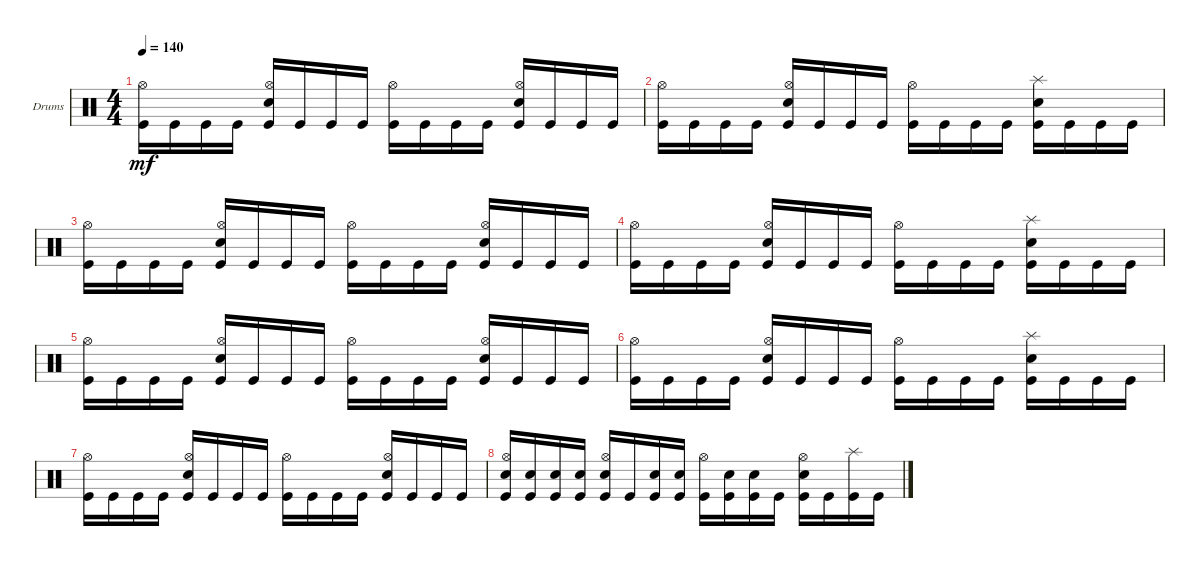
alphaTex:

\defaultSystemsLayout 4
\bracketExtendMode groupsimilarinstruments
\firstSystemTrackNameOrientation horizontal
\otherSystemsTrackNameOrientation horizontal
\track ("Drumkit" "Drums") {instrument percussion}
\staff {score}
\articulation defaults
\ts (4 4)
\tempo 140
\clef neutral
\scale
0.333333
\ks c
("Kick (hit)" "Hi-Hat (open)").16{dy mf} "Kick (hit)".16 "Kick (hit)".16 "Kick (hit)".16 ("Kick (hit)" "Snare (hit) 2" "Hi-Hat (open)").16 "Kick (hit)".16 "Kick (hit)".16 "Kick (hit)".16 ("Kick (hit)" "Hi-Hat (open)").16 "Kick (hit)".16 "Kick (hit)".16 "Kick (hit)".16 ("Kick (hit)" "Snare (hit) 2" "Hi-Hat (open)").16 "Kick (hit)".16 "Kick (hit)".16 "Kick (hit)".16 |
\scale
0.333333 ("Kick (hit)" "Hi-Hat (open)").16 "Kick (hit)".16 "Kick (hit)".16 "Kick (hit)".16 ("Kick (hit)" "Snare (hit) 2" "Hi-Hat (open)").16 "Kick (hit)".16 "Kick (hit)".16 "Kick (hit)".16 ("Kick (hit)" "Hi-Hat (open)").16 "Kick (hit)".16 "Kick (hit)".16 "Kick (hit)".16 ("Kick (hit)" "Snare (hit) 2" "Splash (hit)").16 "Kick (hit)".16 "Kick (hit)".16 "Kick (hit)".16 |
\scale
0.333333 ("Kick (hit)" "Hi-Hat (open)").16 "Kick (hit)".16 "Kick (hit)".16 "Kick (hit)".16 ("Kick (hit)" "Snare (hit) 2" "Hi-Hat (open)").16 "Kick (hit)".16 "Kick (hit)".16 "Kick (hit)".16 ("Kick (hit)" "Hi-Hat (open)").16 "Kick (hit)".16 "Kick (hit)".16 "Kick (hit)".16 ("Kick (hit)" "Snare (hit) 2" "Hi-Hat (open)").16 "Kick (hit)".16 "Kick (hit)".16 "Kick (hit)".16 |
\scale
0.333333 ("Kick (hit)" "Hi-Hat (open)").16 "Kick (hit)".16 "Kick (hit)".16 "Kick (hit)".16 ("Kick (hit)" "Snare (hit) 2" "Hi-Hat (open)").16 "Kick (hit)".16 "Kick (hit)".16 "Kick (hit)".16 ("Kick (hit)" "Hi-Hat (open)").16 "Kick (hit)".16 "Kick (hit)".16 "Kick (hit)".16 ("Kick (hit)" "Snare (hit) 2" "Splash (hit)").16 "Kick (hit)".16 "Kick (hit)".16 "Kick (hit)".16 |
\scale
0.333333 ("Kick (hit)" "Hi-Hat (open)").16 "Kick (hit)".16 "Kick (hit)".16 "Kick (hit)".16 ("Kick (hit)" "Snare (hit) 2" "Hi-Hat (open)").16 "Kick (hit)".16 "Kick (hit)".16 "Kick (hit)".16 ("Kick (hit)" "Hi-Hat (open)").16 "Kick (hit)".16 "Kick (hit)".16 "Kick (hit)".16 ("Kick (hit)" "Snare (hit) 2" "Hi-Hat (open)").16 "Kick (hit)".16 "Kick (hit)".16 "Kick (hit)".16 |
\scale
0.333333 ("Kick (hit)" "Hi-Hat (open)").16 "Kick (hit)".16 "Kick (hit)".16 "Kick (hit)".16 ("Kick (hit)" "Snare (hit) 2" "Hi-Hat (open)").16 "Kick (hit)".16 "Kick (hit)".16 "Kick (hit)".16 ("Kick (hit)" "Hi-Hat (open)").16 "Kick (hit)".16 "Kick (hit)".16 "Kick (hit)".16 ("Kick (hit)" "Snare (hit) 2" "Splash (hit)").16 "Kick (hit)".16 "Kick (hit)".16 "Kick (hit)".16 |
\scale
0.333333 ("Kick (hit)" "Hi-Hat (open)").16 "Kick (hit)".16 "Kick (hit)".16 "Kick (hit)".16 ("Kick (hit)" "Snare (hit) 2" "Hi-Hat (open)").16 "Kick (hit)".16 "Kick (hit)".16 "Kick (hit)".16 ("Kick (hit)" "Hi-Hat (open)").16 "Kick (hit)".16 "Kick (hit)".16 "Kick (hit)".16 ("Kick (hit)" "Snare (hit) 2" "Hi-Hat (open)").16 "Kick (hit)".16 "Kick (hit)".16 "Kick (hit)".16 |
\scale
0.333333 ("Kick (hit)" "Hi-Hat (open)" "Snare (hit) 2").16 ("Kick (hit)" "Snare (hit) 2").16 ("Kick (hit)" "Snare (hit) 2").16 ("Kick (hit)" "Snare (hit) 2").16 ("Kick (hit)" "Snare (hit) 2" "Hi-Hat (open)").16 "Kick (hit)".16 ("Kick (hit)" "Snare (hit) 2").16 ("Kick (hit)" "Snare (hit) 2").16 ("Kick (hit)" "Hi-Hat (open)").16 ("Kick (hit)" "Snare (hit) 2").16 ("Kick (hit)" "Snare (hit) 2").16 "Kick (hit)".16 ("Kick (hit)" "Snare (hit) 2" "Hi-Hat (open)").16 "Kick (hit)".16 ("Kick (hit)" "Splash (hit)").16 "Kick (hit)".16 |
\scale
0.333333
